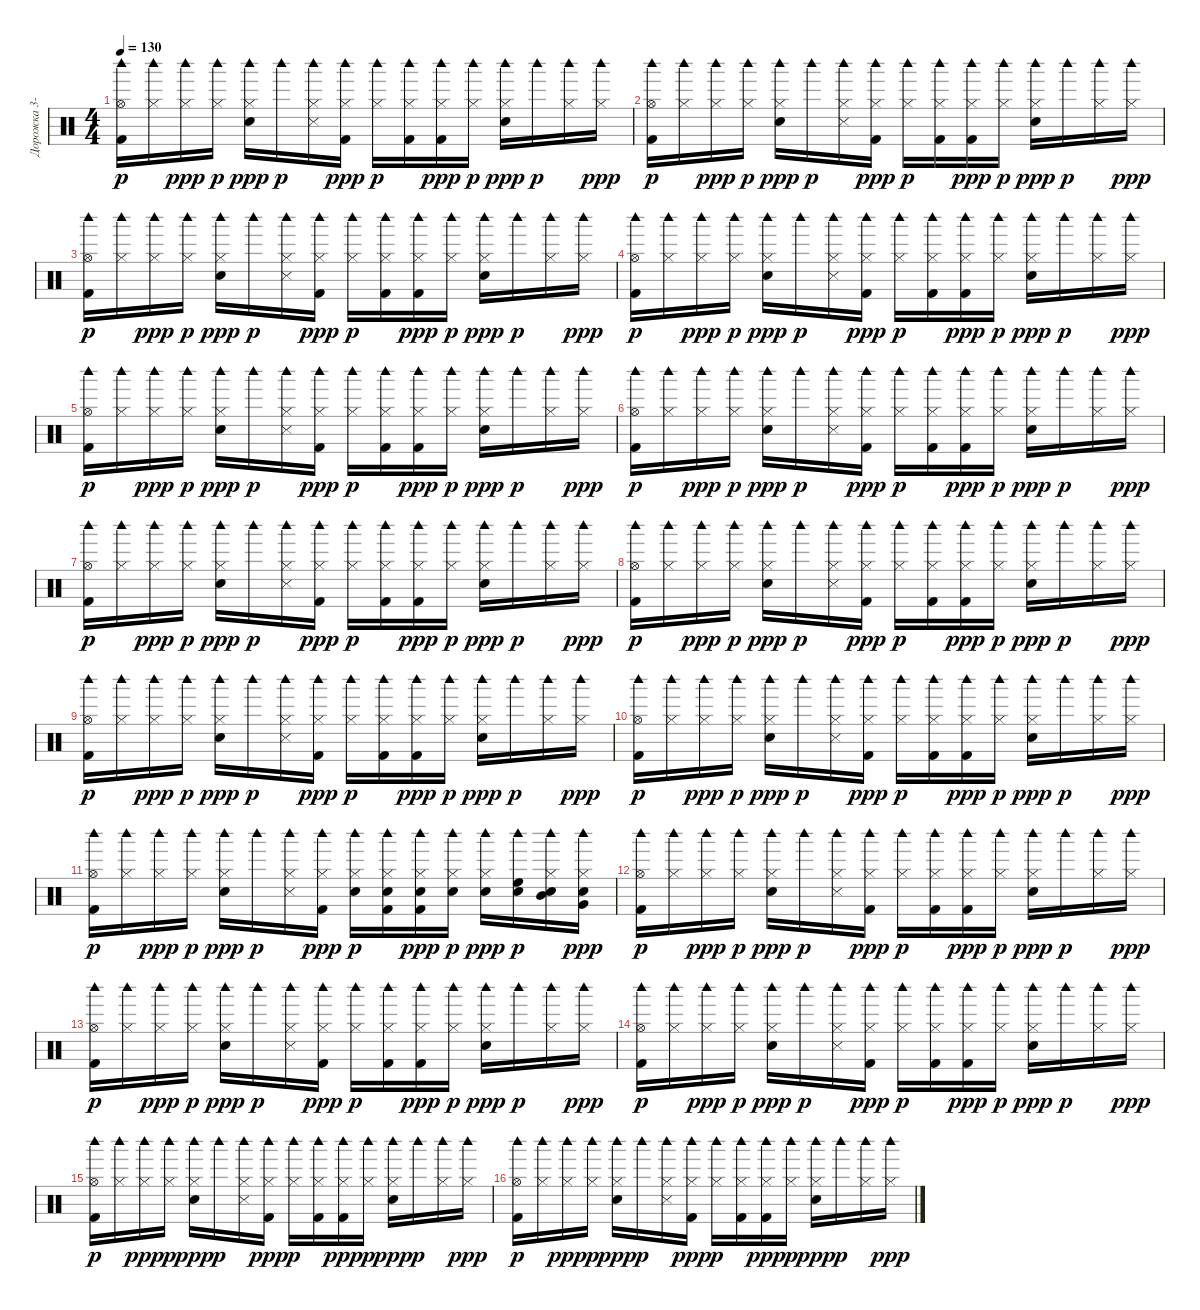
\track ("Дорожка 3-4-5" "Дорожка 3-") {instrument percussion}
\staff {score}
\articulation defaults
\ts (4 4)
\tempo 130
\clef neutral
\ks c
("Kick (hit) 2" "Hi-Hat (open)" "Woodblock high (hit)").16{dy p} ("Hi-Hat (closed)" "Woodblock high (hit)").16 ("Hi-Hat (closed)" "Woodblock high (hit)").16{dy ppp} ("Hi-Hat (closed)" "Woodblock high (hit)").16{dy p} ("Electric Snare (hit)" "Hi-Hat (closed)" "Woodblock high (hit)").16{dy ppp} "Woodblock high (hit)".16{dy p} ("Snare (side stick) 3" "Hi-Hat (closed)" "Woodblock high (hit)").16 ("Kick (hit) 2" "Hi-Hat (closed)" "Woodblock high (hit)").16{dy ppp} ("Hi-Hat (closed)" "Woodblock high (hit)").16{dy p} ("Kick (hit) 2" "Hi-Hat (closed)" "Woodblock high (hit)").16 ("Kick (hit) 2" "Hi-Hat (closed)" "Woodblock high (hit)").16{dy ppp} ("Hi-Hat (closed)" "Woodblock high (hit)").16{dy p} ("Electric Snare (hit)" "Hi-Hat (closed)" "Woodblock high (hit)").16{dy ppp} "Woodblock high (hit)".16{dy p} ("Hi-Hat (closed)" "Woodblock high (hit)").16 ("Hi-Hat (closed)" "Woodblock high (hit)").16{dy ppp} |
("Kick (hit) 2" "Hi-Hat (open)" "Woodblock high (hit)").16{dy p} ("Hi-Hat (closed)" "Woodblock high (hit)").16 ("Hi-Hat (closed)" "Woodblock high (hit)").16{dy ppp} ("Hi-Hat (closed)" "Woodblock high (hit)").16{dy p} ("Electric Snare (hit)" "Hi-Hat (closed)" "Woodblock high (hit)").16{dy ppp} "Woodblock high (hit)".16{dy p} ("Snare (side stick) 3" "Hi-Hat (closed)" "Woodblock high (hit)").16 ("Kick (hit) 2" "Hi-Hat (closed)" "Woodblock high (hit)").16{dy ppp} ("Hi-Hat (closed)" "Woodblock high (hit)").16{dy p} ("Kick (hit) 2" "Hi-Hat (closed)" "Woodblock high (hit)").16 ("Kick (hit) 2" "Hi-Hat (closed)" "Woodblock high (hit)").16{dy ppp} ("Hi-Hat (closed)" "Woodblock high (hit)").16{dy p} ("Electric Snare (hit)" "Hi-Hat (closed)" "Woodblock high (hit)").16{dy ppp} "Woodblock high (hit)".16{dy p} ("Hi-Hat (closed)" "Woodblock high (hit)").16 ("Hi-Hat (closed)" "Woodblock high (hit)").16{dy ppp} |
("Kick (hit) 2" "Hi-Hat (open)" "Woodblock high (hit)").16{dy p} ("Hi-Hat (closed)" "Woodblock high (hit)").16 ("Hi-Hat (closed)" "Woodblock high (hit)").16{dy ppp} ("Hi-Hat (closed)" "Woodblock high (hit)").16{dy p} ("Electric Snare (hit)" "Hi-Hat (closed)" "Woodblock high (hit)").16{dy ppp} "Woodblock high (hit)".16{dy p} ("Snare (side stick) 3" "Hi-Hat (closed)" "Woodblock high (hit)").16 ("Kick (hit) 2" "Hi-Hat (closed)" "Woodblock high (hit)").16{dy ppp} ("Hi-Hat (closed)" "Woodblock high (hit)").16{dy p} ("Kick (hit) 2" "Hi-Hat (closed)" "Woodblock high (hit)").16 ("Kick (hit) 2" "Hi-Hat (closed)" "Woodblock high (hit)").16{dy ppp} ("Hi-Hat (closed)" "Woodblock high (hit)").16{dy p} ("Electric Snare (hit)" "Hi-Hat (closed)" "Woodblock high (hit)").16{dy ppp} "Woodblock high (hit)".16{dy p} ("Hi-Hat (closed)" "Woodblock high (hit)").16 ("Hi-Hat (closed)" "Woodblock high (hit)").16{dy ppp} |
("Kick (hit) 2" "Hi-Hat (open)" "Woodblock high (hit)").16{dy p} ("Hi-Hat (closed)" "Woodblock high (hit)").16 ("Hi-Hat (closed)" "Woodblock high (hit)").16{dy ppp} ("Hi-Hat (closed)" "Woodblock high (hit)").16{dy p} ("Electric Snare (hit)" "Hi-Hat (closed)" "Woodblock high (hit)").16{dy ppp} "Woodblock high (hit)".16{dy p} ("Snare (side stick) 3" "Hi-Hat (closed)" "Woodblock high (hit)").16 ("Kick (hit) 2" "Hi-Hat (closed)" "Woodblock high (hit)").16{dy ppp} ("Hi-Hat (closed)" "Woodblock high (hit)").16{dy p} ("Kick (hit) 2" "Hi-Hat (closed)" "Woodblock high (hit)").16 ("Kick (hit) 2" "Hi-Hat (closed)" "Woodblock high (hit)").16{dy ppp} ("Hi-Hat (closed)" "Woodblock high (hit)").16{dy p} ("Electric Snare (hit)" "Hi-Hat (closed)" "Woodblock high (hit)").16{dy ppp} "Woodblock high (hit)".16{dy p} ("Hi-Hat (closed)" "Woodblock high (hit)").16 ("Hi-Hat (closed)" "Woodblock high (hit)").16{dy ppp} |
("Kick (hit) 2" "Hi-Hat (open)" "Woodblock high (hit)").16{dy p} ("Hi-Hat (closed)" "Woodblock high (hit)").16 ("Hi-Hat (closed)" "Woodblock high (hit)").16{dy ppp} ("Hi-Hat (closed)" "Woodblock high (hit)").16{dy p} ("Electric Snare (hit)" "Hi-Hat (closed)" "Woodblock high (hit)").16{dy ppp} "Woodblock high (hit)".16{dy p} ("Snare (side stick) 3" "Hi-Hat (closed)" "Woodblock high (hit)").16 ("Kick (hit) 2" "Hi-Hat (closed)" "Woodblock high (hit)").16{dy ppp} ("Hi-Hat (closed)" "Woodblock high (hit)").16{dy p} ("Kick (hit) 2" "Hi-Hat (closed)" "Woodblock high (hit)").16 ("Kick (hit) 2" "Hi-Hat (closed)" "Woodblock high (hit)").16{dy ppp} ("Hi-Hat (closed)" "Woodblock high (hit)").16{dy p} ("Electric Snare (hit)" "Hi-Hat (closed)" "Woodblock high (hit)").16{dy ppp} "Woodblock high (hit)".16{dy p} ("Hi-Hat (closed)" "Woodblock high (hit)").16 ("Hi-Hat (closed)" "Woodblock high (hit)").16{dy ppp} |
("Kick (hit) 2" "Hi-Hat (open)" "Woodblock high (hit)").16{dy p} ("Hi-Hat (closed)" "Woodblock high (hit)").16 ("Hi-Hat (closed)" "Woodblock high (hit)").16{dy ppp} ("Hi-Hat (closed)" "Woodblock high (hit)").16{dy p} ("Electric Snare (hit)" "Hi-Hat (closed)" "Woodblock high (hit)").16{dy ppp} "Woodblock high (hit)".16{dy p} ("Snare (side stick) 3" "Hi-Hat (closed)" "Woodblock high (hit)").16 ("Kick (hit) 2" "Hi-Hat (closed)" "Woodblock high (hit)").16{dy ppp} ("Hi-Hat (closed)" "Woodblock high (hit)").16{dy p} ("Kick (hit) 2" "Hi-Hat (closed)" "Woodblock high (hit)").16 ("Kick (hit) 2" "Hi-Hat (closed)" "Woodblock high (hit)").16{dy ppp} ("Hi-Hat (closed)" "Woodblock high (hit)").16{dy p} ("Electric Snare (hit)" "Hi-Hat (closed)" "Woodblock high (hit)").16{dy ppp} "Woodblock high (hit)".16{dy p} ("Hi-Hat (closed)" "Woodblock high (hit)").16 ("Hi-Hat (closed)" "Woodblock high (hit)").16{dy ppp} |
("Kick (hit) 2" "Hi-Hat (open)" "Woodblock high (hit)").16{dy p} ("Hi-Hat (closed)" "Woodblock high (hit)").16 ("Hi-Hat (closed)" "Woodblock high (hit)").16{dy ppp} ("Hi-Hat (closed)" "Woodblock high (hit)").16{dy p} ("Electric Snare (hit)" "Hi-Hat (closed)" "Woodblock high (hit)").16{dy ppp} "Woodblock high (hit)".16{dy p} ("Snare (side stick) 3" "Hi-Hat (closed)" "Woodblock high (hit)").16 ("Kick (hit) 2" "Hi-Hat (closed)" "Woodblock high (hit)").16{dy ppp} ("Hi-Hat (closed)" "Woodblock high (hit)").16{dy p} ("Kick (hit) 2" "Hi-Hat (closed)" "Woodblock high (hit)").16 ("Kick (hit) 2" "Hi-Hat (closed)" "Woodblock high (hit)").16{dy ppp} ("Hi-Hat (closed)" "Woodblock high (hit)").16{dy p} ("Electric Snare (hit)" "Hi-Hat (closed)" "Woodblock high (hit)").16{dy ppp} "Woodblock high (hit)".16{dy p} ("Hi-Hat (closed)" "Woodblock high (hit)").16 ("Hi-Hat (closed)" "Woodblock high (hit)").16{dy ppp} |
("Kick (hit) 2" "Hi-Hat (open)" "Woodblock high (hit)").16{dy p} ("Hi-Hat (closed)" "Woodblock high (hit)").16 ("Hi-Hat (closed)" "Woodblock high (hit)").16{dy ppp} ("Hi-Hat (closed)" "Woodblock high (hit)").16{dy p} ("Electric Snare (hit)" "Hi-Hat (closed)" "Woodblock high (hit)").16{dy ppp} "Woodblock high (hit)".16{dy p} ("Snare (side stick) 3" "Hi-Hat (closed)" "Woodblock high (hit)").16 ("Kick (hit) 2" "Hi-Hat (closed)" "Woodblock high (hit)").16{dy ppp} ("Hi-Hat (closed)" "Woodblock high (hit)").16{dy p} ("Kick (hit) 2" "Hi-Hat (closed)" "Woodblock high (hit)").16 ("Kick (hit) 2" "Hi-Hat (closed)" "Woodblock high (hit)").16{dy ppp} ("Hi-Hat (closed)" "Woodblock high (hit)").16{dy p} ("Electric Snare (hit)" "Hi-Hat (closed)" "Woodblock high (hit)").16{dy ppp} "Woodblock high (hit)".16{dy p} ("Hi-Hat (closed)" "Woodblock high (hit)").16 ("Hi-Hat (closed)" "Woodblock high (hit)").16{dy ppp} |
("Kick (hit) 2" "Hi-Hat (open)" "Woodblock high (hit)").16{dy p} ("Hi-Hat (closed)" "Woodblock high (hit)").16 ("Hi-Hat (closed)" "Woodblock high (hit)").16{dy ppp} ("Hi-Hat (closed)" "Woodblock high (hit)").16{dy p} ("Electric Snare (hit)" "Hi-Hat (closed)" "Woodblock high (hit)").16{dy ppp} "Woodblock high (hit)".16{dy p} ("Snare (side stick) 3" "Hi-Hat (closed)" "Woodblock high (hit)").16 ("Kick (hit) 2" "Hi-Hat (closed)" "Woodblock high (hit)").16{dy ppp} ("Hi-Hat (closed)" "Woodblock high (hit)").16{dy p} ("Kick (hit) 2" "Hi-Hat (closed)" "Woodblock high (hit)").16 ("Kick (hit) 2" "Hi-Hat (closed)" "Woodblock high (hit)").16{dy ppp} ("Hi-Hat (closed)" "Woodblock high (hit)").16{dy p} ("Electric Snare (hit)" "Hi-Hat (closed)" "Woodblock high (hit)").16{dy ppp} "Woodblock high (hit)".16{dy p} ("Hi-Hat (closed)" "Woodblock high (hit)").16 ("Hi-Hat (closed)" "Woodblock high (hit)").16{dy ppp} |
("Kick (hit) 2" "Hi-Hat (open)" "Woodblock high (hit)").16{dy p} ("Hi-Hat (closed)" "Woodblock high (hit)").16 ("Hi-Hat (closed)" "Woodblock high (hit)").16{dy ppp} ("Hi-Hat (closed)" "Woodblock high (hit)").16{dy p} ("Electric Snare (hit)" "Hi-Hat (closed)" "Woodblock high (hit)").16{dy ppp} "Woodblock high (hit)".16{dy p} ("Snare (side stick) 3" "Hi-Hat (closed)" "Woodblock high (hit)").16 ("Kick (hit) 2" "Hi-Hat (closed)" "Woodblock high (hit)").16{dy ppp} ("Hi-Hat (closed)" "Woodblock high (hit)").16{dy p} ("Kick (hit) 2" "Hi-Hat (closed)" "Woodblock high (hit)").16 ("Kick (hit) 2" "Hi-Hat (closed)" "Woodblock high (hit)").16{dy ppp} ("Hi-Hat (closed)" "Woodblock high (hit)").16{dy p} ("Electric Snare (hit)" "Hi-Hat (closed)" "Woodblock high (hit)").16{dy ppp} "Woodblock high (hit)".16{dy p} ("Hi-Hat (closed)" "Woodblock high (hit)").16 ("Hi-Hat (closed)" "Woodblock high (hit)").16{dy ppp} |
("Kick (hit) 2" "Hi-Hat (open)" "Woodblock high (hit)").16{dy p} ("Hi-Hat (closed)" "Woodblock high (hit)").16 ("Hi-Hat (closed)" "Woodblock high (hit)").16{dy ppp} ("Hi-Hat (closed)" "Woodblock high (hit)").16{dy p} ("Electric Snare (hit)" "Hi-Hat (closed)" "Woodblock high (hit)").16{dy ppp} "Woodblock high (hit)".16{dy p} ("Snare (side stick) 3" "Hi-Hat (closed)" "Woodblock high (hit)").16 ("Kick (hit) 2" "Hi-Hat (closed)" "Woodblock high (hit)").16{dy ppp} ("Electric Snare (hit)" "Hi-Hat (closed)" "Woodblock high (hit)").16{dy p} ("Electric Snare (hit)" "Kick (hit) 2" "Hi-Hat (closed)" "Woodblock high (hit)").16 ("Electric Snare (hit)" "Kick (hit) 2" "Hi-Hat (closed)" "Woodblock high (hit)").16{dy ppp} ("Electric Snare (hit)" "Hi-Hat (closed)" "Woodblock high (hit)").16{dy p} ("Electric Snare (hit)" "Hi-Hat (closed)" "Woodblock high (hit)").16{dy ppp} ("High Floor Tom (hit)" "Electric Snare (hit)" "Woodblock high (hit)").16{dy p} ("Mid Tom (hit)" "Electric Snare (hit)" "Hi-Hat (closed)" "Woodblock high (hit)").16 ("Very Low Tom (hit)" "Electric Snare (hit)" "Hi-Hat (closed)" "Woodblock high (hit)").16{dy ppp} |
("Kick (hit) 2" "Hi-Hat (open)" "Woodblock high (hit)").16{dy p} ("Hi-Hat (closed)" "Woodblock high (hit)").16 ("Hi-Hat (closed)" "Woodblock high (hit)").16{dy ppp} ("Hi-Hat (closed)" "Woodblock high (hit)").16{dy p} ("Electric Snare (hit)" "Hi-Hat (closed)" "Woodblock high (hit)").16{dy ppp} "Woodblock high (hit)".16{dy p} ("Snare (side stick) 3" "Hi-Hat (closed)" "Woodblock high (hit)").16 ("Kick (hit) 2" "Hi-Hat (closed)" "Woodblock high (hit)").16{dy ppp} ("Hi-Hat (closed)" "Woodblock high (hit)").16{dy p} ("Kick (hit) 2" "Hi-Hat (closed)" "Woodblock high (hit)").16 ("Kick (hit) 2" "Hi-Hat (closed)" "Woodblock high (hit)").16{dy ppp} ("Hi-Hat (closed)" "Woodblock high (hit)").16{dy p} ("Electric Snare (hit)" "Hi-Hat (closed)" "Woodblock high (hit)").16{dy ppp} "Woodblock high (hit)".16{dy p} ("Hi-Hat (closed)" "Woodblock high (hit)").16 ("Hi-Hat (closed)" "Woodblock high (hit)").16{dy ppp} |
("Kick (hit) 2" "Hi-Hat (open)" "Woodblock high (hit)").16{dy p} ("Hi-Hat (closed)" "Woodblock high (hit)").16 ("Hi-Hat (closed)" "Woodblock high (hit)").16{dy ppp} ("Hi-Hat (closed)" "Woodblock high (hit)").16{dy p} ("Electric Snare (hit)" "Hi-Hat (closed)" "Woodblock high (hit)").16{dy ppp} "Woodblock high (hit)".16{dy p} ("Snare (side stick) 3" "Hi-Hat (closed)" "Woodblock high (hit)").16 ("Kick (hit) 2" "Hi-Hat (closed)" "Woodblock high (hit)").16{dy ppp} ("Hi-Hat (closed)" "Woodblock high (hit)").16{dy p} ("Kick (hit) 2" "Hi-Hat (closed)" "Woodblock high (hit)").16 ("Kick (hit) 2" "Hi-Hat (closed)" "Woodblock high (hit)").16{dy ppp} ("Hi-Hat (closed)" "Woodblock high (hit)").16{dy p} ("Electric Snare (hit)" "Hi-Hat (closed)" "Woodblock high (hit)").16{dy ppp} "Woodblock high (hit)".16{dy p} ("Hi-Hat (closed)" "Woodblock high (hit)").16 ("Hi-Hat (closed)" "Woodblock high (hit)").16{dy ppp} |
("Kick (hit) 2" "Hi-Hat (open)" "Woodblock high (hit)").16{dy p} ("Hi-Hat (closed)" "Woodblock high (hit)").16 ("Hi-Hat (closed)" "Woodblock high (hit)").16{dy ppp} ("Hi-Hat (closed)" "Woodblock high (hit)").16{dy p} ("Electric Snare (hit)" "Hi-Hat (closed)" "Woodblock high (hit)").16{dy ppp} "Woodblock high (hit)".16{dy p} ("Snare (side stick) 3" "Hi-Hat (closed)" "Woodblock high (hit)").16 ("Kick (hit) 2" "Hi-Hat (closed)" "Woodblock high (hit)").16{dy ppp} ("Hi-Hat (closed)" "Woodblock high (hit)").16{dy p} ("Kick (hit) 2" "Hi-Hat (closed)" "Woodblock high (hit)").16 ("Kick (hit) 2" "Hi-Hat (closed)" "Woodblock high (hit)").16{dy ppp} ("Hi-Hat (closed)" "Woodblock high (hit)").16{dy p} ("Electric Snare (hit)" "Hi-Hat (closed)" "Woodblock high (hit)").16{dy ppp} "Woodblock high (hit)".16{dy p} ("Hi-Hat (closed)" "Woodblock high (hit)").16 ("Hi-Hat (closed)" "Woodblock high (hit)").16{dy ppp} |
("Kick (hit) 2" "Hi-Hat (open)" "Woodblock high (hit)").16{dy p} ("Hi-Hat (closed)" "Woodblock high (hit)").16 ("Hi-Hat (closed)" "Woodblock high (hit)").16{dy ppp} ("Hi-Hat (closed)" "Woodblock high (hit)").16{dy p} ("Electric Snare (hit)" "Hi-Hat (closed)" "Woodblock high (hit)").16{dy ppp} "Woodblock high (hit)".16{dy p} ("Snare (side stick) 3" "Hi-Hat (closed)" "Woodblock high (hit)").16 ("Kick (hit) 2" "Hi-Hat (closed)" "Woodblock high (hit)").16{dy ppp} ("Hi-Hat (closed)" "Woodblock high (hit)").16{dy p} ("Kick (hit) 2" "Hi-Hat (closed)" "Woodblock high (hit)").16 ("Kick (hit) 2" "Hi-Hat (closed)" "Woodblock high (hit)").16{dy ppp} ("Hi-Hat (closed)" "Woodblock high (hit)").16{dy p} ("Electric Snare (hit)" "Hi-Hat (closed)" "Woodblock high (hit)").16{dy ppp} "Woodblock high (hit)".16{dy p} ("Hi-Hat (closed)" "Woodblock high (hit)").16 ("Hi-Hat (closed)" "Woodblock high (hit)").16{dy ppp} |
("Kick (hit) 2" "Hi-Hat (open)" "Woodblock high (hit)").16{dy p} ("Hi-Hat (closed)" "Woodblock high (hit)").16 ("Hi-Hat (closed)" "Woodblock high (hit)").16{dy ppp} ("Hi-Hat (closed)" "Woodblock high (hit)").16{dy p} ("Electric Snare (hit)" "Hi-Hat (closed)" "Woodblock high (hit)").16{dy ppp} "Woodblock high (hit)".16{dy p} ("Snare (side stick) 3" "Hi-Hat (closed)" "Woodblock high (hit)").16 ("Kick (hit) 2" "Hi-Hat (closed)" "Woodblock high (hit)").16{dy ppp} ("Hi-Hat (closed)" "Woodblock high (hit)").16{dy p} ("Kick (hit) 2" "Hi-Hat (closed)" "Woodblock high (hit)").16 ("Kick (hit) 2" "Hi-Hat (closed)" "Woodblock high (hit)").16{dy ppp} ("Hi-Hat (closed)" "Woodblock high (hit)").16{dy p} ("Electric Snare (hit)" "Hi-Hat (closed)" "Woodblock high (hit)").16{dy ppp} "Woodblock high (hit)".16{dy p} ("Hi-Hat (closed)" "Woodblock high (hit)").16 ("Hi-Hat (closed)" "Woodblock high (hit)").16{dy ppp}
